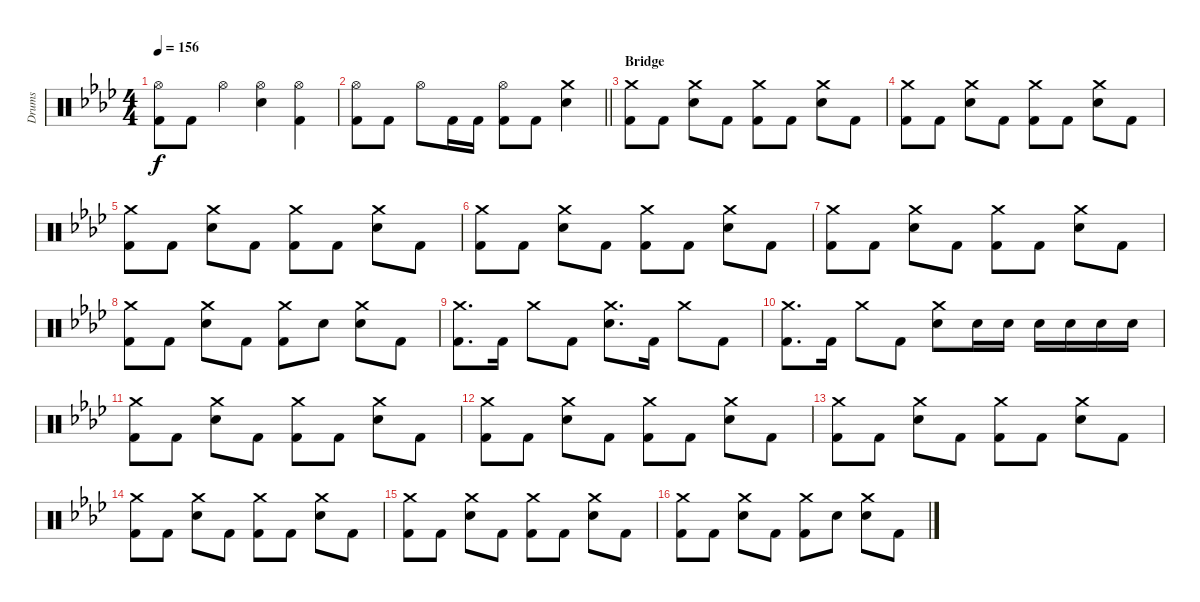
\track ("Drums" "Drums") {instrument percussion}
\staff {score}
\articulation defaults
\ts (4 4)
\tempo 156
\clef neutral
\ks fminor
("Kick (hit) 2" "Hi-Hat (open)").8{dy f} "Kick (hit) 2".8 "Hi-Hat (open)".4 ("Hi-Hat (open)" "Electric Snare (hit)").4 ("Hi-Hat (open)" "Kick (hit) 2").4 |
\barLineRight lightlight
("Kick (hit) 2" "Hi-Hat (open)").8 "Kick (hit) 2".8 "Hi-Hat (open)".8 "Kick (hit) 2".16 "Kick (hit) 2".16 ("Kick (hit) 2" "Hi-Hat (open)").8 "Kick (hit) 2".8 ("Crash medium (hit)" "Electric Snare (hit)").4 |
\section ("" "Bridge")
("Crash medium (hit)" "Kick (hit) 2").8 "Kick (hit) 2".8 ("Electric Snare (hit)" "Crash medium (hit)").8 "Kick (hit) 2".8 ("Crash medium (hit)" "Kick (hit) 2").8 "Kick (hit) 2".8 ("Electric Snare (hit)" "Crash medium (hit)").8 "Kick (hit) 2".8 |
("Crash medium (hit)" "Kick (hit) 2").8 "Kick (hit) 2".8 ("Electric Snare (hit)" "Crash medium (hit)").8 "Kick (hit) 2".8 ("Crash medium (hit)" "Kick (hit) 2").8 "Kick (hit) 2".8 ("Electric Snare (hit)" "Crash medium (hit)").8 "Kick (hit) 2".8 |
("Crash medium (hit)" "Kick (hit) 2").8 "Kick (hit) 2".8 ("Electric Snare (hit)" "Crash medium (hit)").8 "Kick (hit) 2".8 ("Crash medium (hit)" "Kick (hit) 2").8 "Kick (hit) 2".8 ("Electric Snare (hit)" "Crash medium (hit)").8 "Kick (hit) 2".8 |
("Crash medium (hit)" "Kick (hit) 2").8 "Kick (hit) 2".8 ("Electric Snare (hit)" "Crash medium (hit)").8 "Kick (hit) 2".8 ("Crash medium (hit)" "Kick (hit) 2").8 "Kick (hit) 2".8 ("Electric Snare (hit)" "Crash medium (hit)").8 "Kick (hit) 2".8 |
("Crash medium (hit)" "Kick (hit) 2").8 "Kick (hit) 2".8 ("Electric Snare (hit)" "Crash medium (hit)").8 "Kick (hit) 2".8 ("Crash medium (hit)" "Kick (hit) 2").8 "Kick (hit) 2".8 ("Electric Snare (hit)" "Crash medium (hit)").8 "Kick (hit) 2".8 |
("Crash medium (hit)" "Kick (hit) 2").8 "Kick (hit) 2".8 ("Electric Snare (hit)" "Crash medium (hit)").8 "Kick (hit) 2".8 ("Crash medium (hit)" "Kick (hit) 2").8 "Electric Snare (hit)".8 ("Electric Snare (hit)" "Crash medium (hit)").8 "Kick (hit) 2".8 |
("Crash medium (hit)" "Kick (hit) 2").8{d} "Kick (hit) 2".16 "Crash medium (hit)".8 "Kick (hit) 2".8 ("Crash medium (hit)" "Electric Snare (hit)").8{d} "Kick (hit) 2".16 "Crash medium (hit)".8 "Kick (hit) 2".8 |
("Crash medium (hit)" "Kick (hit) 2").8{d} "Kick (hit) 2".16 "Crash medium (hit)".8 "Kick (hit) 2".8 ("Electric Snare (hit)" "Crash medium (hit)").8 "Electric Snare (hit)".16 "Electric Snare (hit)".16 "Electric Snare (hit)".16 "Electric Snare (hit)".16 "Electric Snare (hit)".16 "Electric Snare (hit)".16 |
("Crash medium (hit)" "Kick (hit) 2").8 "Kick (hit) 2".8 ("Electric Snare (hit)" "Crash medium (hit)").8 "Kick (hit) 2".8 ("Crash medium (hit)" "Kick (hit) 2").8 "Kick (hit) 2".8 ("Electric Snare (hit)" "Crash medium (hit)").8 "Kick (hit) 2".8 |
("Crash medium (hit)" "Kick (hit) 2").8 "Kick (hit) 2".8 ("Electric Snare (hit)" "Crash medium (hit)").8 "Kick (hit) 2".8 ("Crash medium (hit)" "Kick (hit) 2").8 "Kick (hit) 2".8 ("Electric Snare (hit)" "Crash medium (hit)").8 "Kick (hit) 2".8 |
("Crash medium (hit)" "Kick (hit) 2").8 "Kick (hit) 2".8 ("Electric Snare (hit)" "Crash medium (hit)").8 "Kick (hit) 2".8 ("Crash medium (hit)" "Kick (hit) 2").8 "Kick (hit) 2".8 ("Electric Snare (hit)" "Crash medium (hit)").8 "Kick (hit) 2".8 |
("Crash medium (hit)" "Kick (hit) 2").8 "Kick (hit) 2".8 ("Electric Snare (hit)" "Crash medium (hit)").8 "Kick (hit) 2".8 ("Crash medium (hit)" "Kick (hit) 2").8 "Kick (hit) 2".8 ("Electric Snare (hit)" "Crash medium (hit)").8 "Kick (hit) 2".8 |
("Crash medium (hit)" "Kick (hit) 2").8 "Kick (hit) 2".8 ("Electric Snare (hit)" "Crash medium (hit)").8 "Kick (hit) 2".8 ("Crash medium (hit)" "Kick (hit) 2").8 "Kick (hit) 2".8 ("Electric Snare (hit)" "Crash medium (hit)").8 "Kick (hit) 2".8 |
("Crash medium (hit)" "Kick (hit) 2").8 "Kick (hit) 2".8 ("Electric Snare (hit)" "Crash medium (hit)").8 "Kick (hit) 2".8 ("Crash medium (hit)" "Kick (hit) 2").8 "Electric Snare (hit)".8 ("Electric Snare (hit)" "Crash medium (hit)").8 "Kick (hit) 2".8
